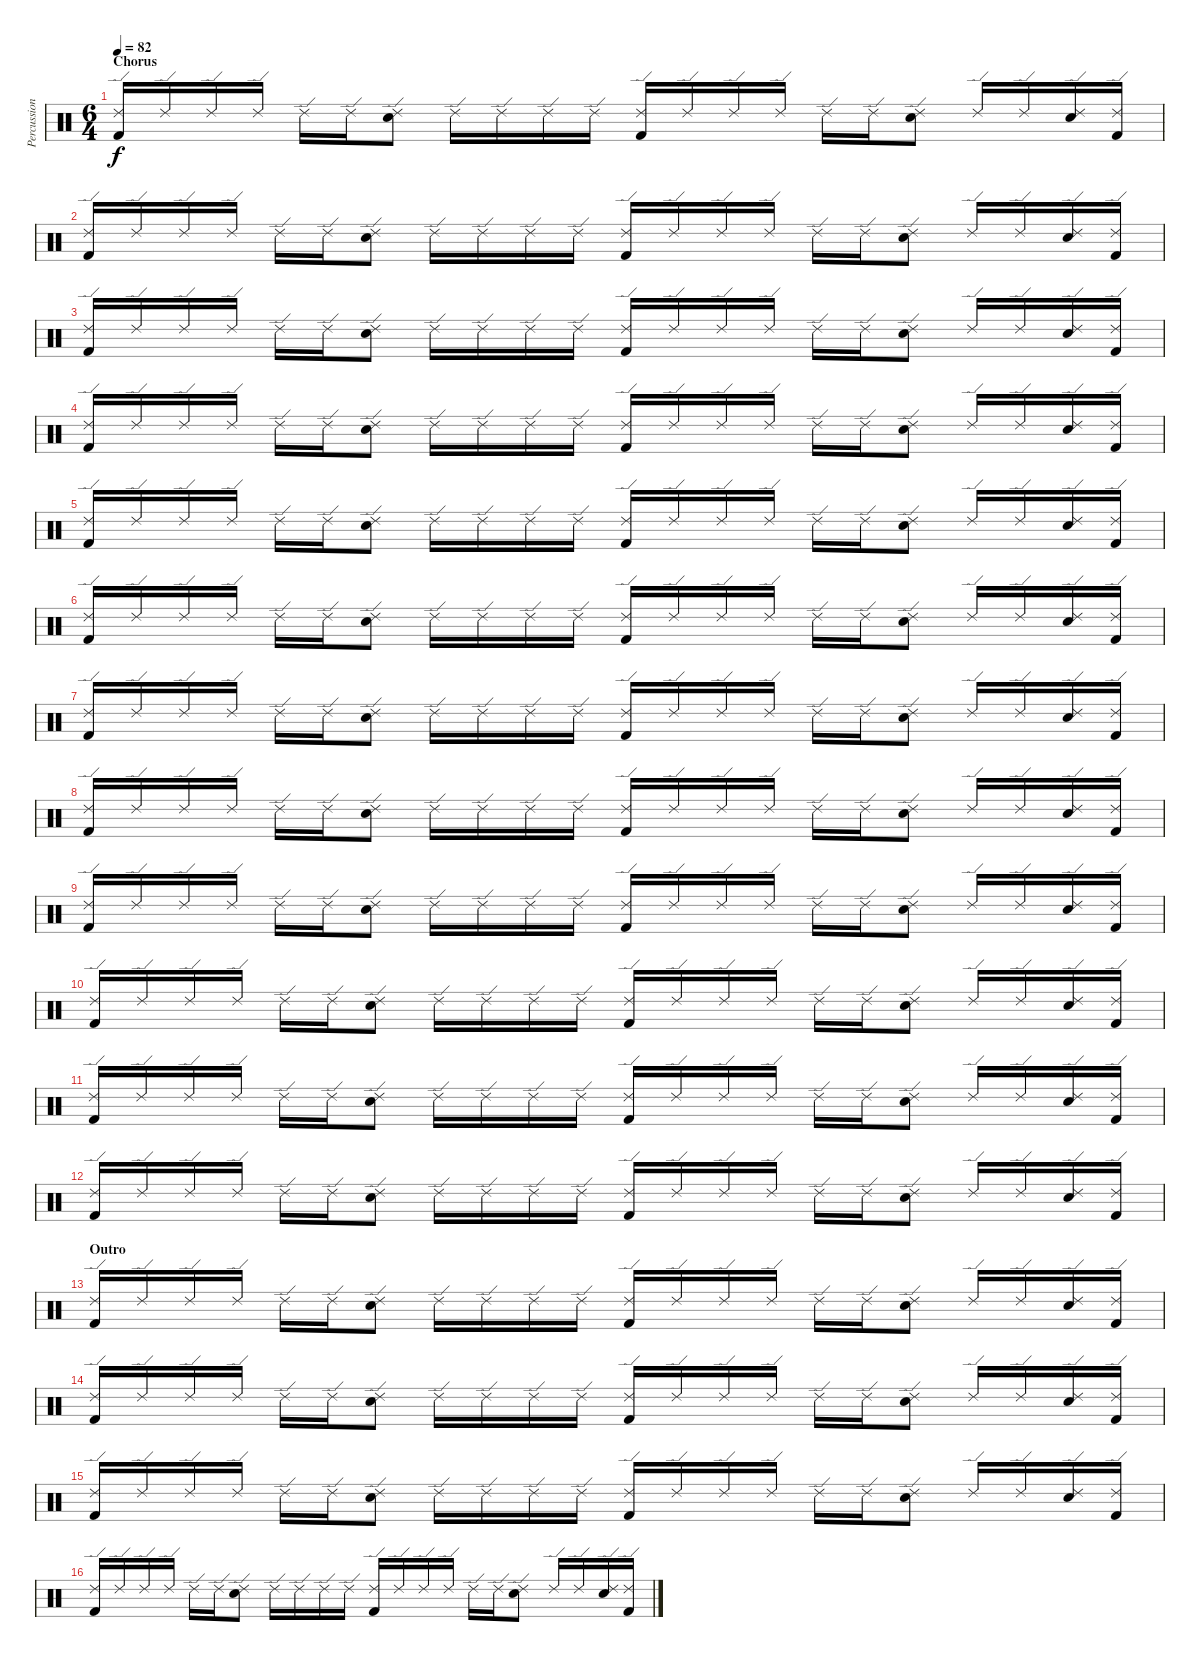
\track ("Percussion" "Percussion") {instrument percussion}
\staff {score}
\articulation defaults
\ts (6 4)
\section ("" "Chorus")
\tempo 82
\clef neutral
\ks c
("Ride (edge) 2" "Kick (hit) 2").16{dy f} "Ride (edge) 2".16 "Ride (edge) 2".16 "Ride (edge) 2".16 "Ride (edge) 2".16 "Ride (edge) 2".16 ("Ride (edge) 2" "Electric Snare (hit)").8 "Ride (edge) 2".16 "Ride (edge) 2".16 "Ride (edge) 2".16 "Ride (edge) 2".16 ("Ride (edge) 2" "Kick (hit) 2").16 "Ride (edge) 2".16 "Ride (edge) 2".16 "Ride (edge) 2".16 "Ride (edge) 2".16 "Ride (edge) 2".16 ("Ride (edge) 2" "Electric Snare (hit)").8 "Ride (edge) 2".16 "Ride (edge) 2".16 ("Ride (edge) 2" "Electric Snare (hit)").16 ("Ride (edge) 2" "Kick (hit) 2").16 |
("Ride (edge) 2" "Kick (hit) 2").16 "Ride (edge) 2".16 "Ride (edge) 2".16 "Ride (edge) 2".16 "Ride (edge) 2".16 "Ride (edge) 2".16 ("Ride (edge) 2" "Electric Snare (hit)").8 "Ride (edge) 2".16 "Ride (edge) 2".16 "Ride (edge) 2".16 "Ride (edge) 2".16 ("Ride (edge) 2" "Kick (hit) 2").16 "Ride (edge) 2".16 "Ride (edge) 2".16 "Ride (edge) 2".16 "Ride (edge) 2".16 "Ride (edge) 2".16 ("Ride (edge) 2" "Electric Snare (hit)").8 "Ride (edge) 2".16 "Ride (edge) 2".16 ("Ride (edge) 2" "Electric Snare (hit)").16 ("Ride (edge) 2" "Kick (hit) 2").16 |
("Ride (edge) 2" "Kick (hit) 2").16 "Ride (edge) 2".16 "Ride (edge) 2".16 "Ride (edge) 2".16 "Ride (edge) 2".16 "Ride (edge) 2".16 ("Ride (edge) 2" "Electric Snare (hit)").8 "Ride (edge) 2".16 "Ride (edge) 2".16 "Ride (edge) 2".16 "Ride (edge) 2".16 ("Ride (edge) 2" "Kick (hit) 2").16 "Ride (edge) 2".16 "Ride (edge) 2".16 "Ride (edge) 2".16 "Ride (edge) 2".16 "Ride (edge) 2".16 ("Ride (edge) 2" "Electric Snare (hit)").8 "Ride (edge) 2".16 "Ride (edge) 2".16 ("Ride (edge) 2" "Electric Snare (hit)").16 ("Ride (edge) 2" "Kick (hit) 2").16 |
("Ride (edge) 2" "Kick (hit) 2").16 "Ride (edge) 2".16 "Ride (edge) 2".16 "Ride (edge) 2".16 "Ride (edge) 2".16 "Ride (edge) 2".16 ("Ride (edge) 2" "Electric Snare (hit)").8 "Ride (edge) 2".16 "Ride (edge) 2".16 "Ride (edge) 2".16 "Ride (edge) 2".16 ("Ride (edge) 2" "Kick (hit) 2").16 "Ride (edge) 2".16 "Ride (edge) 2".16 "Ride (edge) 2".16 "Ride (edge) 2".16 "Ride (edge) 2".16 ("Ride (edge) 2" "Electric Snare (hit)").8 "Ride (edge) 2".16 "Ride (edge) 2".16 ("Ride (edge) 2" "Electric Snare (hit)").16 ("Ride (edge) 2" "Kick (hit) 2").16 |
("Ride (edge) 2" "Kick (hit) 2").16 "Ride (edge) 2".16 "Ride (edge) 2".16 "Ride (edge) 2".16 "Ride (edge) 2".16 "Ride (edge) 2".16 ("Ride (edge) 2" "Electric Snare (hit)").8 "Ride (edge) 2".16 "Ride (edge) 2".16 "Ride (edge) 2".16 "Ride (edge) 2".16 ("Ride (edge) 2" "Kick (hit) 2").16 "Ride (edge) 2".16 "Ride (edge) 2".16 "Ride (edge) 2".16 "Ride (edge) 2".16 "Ride (edge) 2".16 ("Ride (edge) 2" "Electric Snare (hit)").8 "Ride (edge) 2".16 "Ride (edge) 2".16 ("Ride (edge) 2" "Electric Snare (hit)").16 ("Ride (edge) 2" "Kick (hit) 2").16 |
("Ride (edge) 2" "Kick (hit) 2").16 "Ride (edge) 2".16 "Ride (edge) 2".16 "Ride (edge) 2".16 "Ride (edge) 2".16 "Ride (edge) 2".16 ("Ride (edge) 2" "Electric Snare (hit)").8 "Ride (edge) 2".16 "Ride (edge) 2".16 "Ride (edge) 2".16 "Ride (edge) 2".16 ("Ride (edge) 2" "Kick (hit) 2").16 "Ride (edge) 2".16 "Ride (edge) 2".16 "Ride (edge) 2".16 "Ride (edge) 2".16 "Ride (edge) 2".16 ("Ride (edge) 2" "Electric Snare (hit)").8 "Ride (edge) 2".16 "Ride (edge) 2".16 ("Ride (edge) 2" "Electric Snare (hit)").16 ("Ride (edge) 2" "Kick (hit) 2").16 |
("Ride (edge) 2" "Kick (hit) 2").16 "Ride (edge) 2".16 "Ride (edge) 2".16 "Ride (edge) 2".16 "Ride (edge) 2".16 "Ride (edge) 2".16 ("Ride (edge) 2" "Electric Snare (hit)").8 "Ride (edge) 2".16 "Ride (edge) 2".16 "Ride (edge) 2".16 "Ride (edge) 2".16 ("Ride (edge) 2" "Kick (hit) 2").16 "Ride (edge) 2".16 "Ride (edge) 2".16 "Ride (edge) 2".16 "Ride (edge) 2".16 "Ride (edge) 2".16 ("Ride (edge) 2" "Electric Snare (hit)").8 "Ride (edge) 2".16 "Ride (edge) 2".16 ("Ride (edge) 2" "Electric Snare (hit)").16 ("Ride (edge) 2" "Kick (hit) 2").16 |
("Ride (edge) 2" "Kick (hit) 2").16 "Ride (edge) 2".16 "Ride (edge) 2".16 "Ride (edge) 2".16 "Ride (edge) 2".16 "Ride (edge) 2".16 ("Ride (edge) 2" "Electric Snare (hit)").8 "Ride (edge) 2".16 "Ride (edge) 2".16 "Ride (edge) 2".16 "Ride (edge) 2".16 ("Ride (edge) 2" "Kick (hit) 2").16 "Ride (edge) 2".16 "Ride (edge) 2".16 "Ride (edge) 2".16 "Ride (edge) 2".16 "Ride (edge) 2".16 ("Ride (edge) 2" "Electric Snare (hit)").8 "Ride (edge) 2".16 "Ride (edge) 2".16 ("Ride (edge) 2" "Electric Snare (hit)").16 ("Ride (edge) 2" "Kick (hit) 2").16 |
("Ride (edge) 2" "Kick (hit) 2").16 "Ride (edge) 2".16 "Ride (edge) 2".16 "Ride (edge) 2".16 "Ride (edge) 2".16 "Ride (edge) 2".16 ("Ride (edge) 2" "Electric Snare (hit)").8 "Ride (edge) 2".16 "Ride (edge) 2".16 "Ride (edge) 2".16 "Ride (edge) 2".16 ("Ride (edge) 2" "Kick (hit) 2").16 "Ride (edge) 2".16 "Ride (edge) 2".16 "Ride (edge) 2".16 "Ride (edge) 2".16 "Ride (edge) 2".16 ("Ride (edge) 2" "Electric Snare (hit)").8 "Ride (edge) 2".16 "Ride (edge) 2".16 ("Ride (edge) 2" "Electric Snare (hit)").16 ("Ride (edge) 2" "Kick (hit) 2").16 |
("Ride (edge) 2" "Kick (hit) 2").16 "Ride (edge) 2".16 "Ride (edge) 2".16 "Ride (edge) 2".16 "Ride (edge) 2".16 "Ride (edge) 2".16 ("Ride (edge) 2" "Electric Snare (hit)").8 "Ride (edge) 2".16 "Ride (edge) 2".16 "Ride (edge) 2".16 "Ride (edge) 2".16 ("Ride (edge) 2" "Kick (hit) 2").16 "Ride (edge) 2".16 "Ride (edge) 2".16 "Ride (edge) 2".16 "Ride (edge) 2".16 "Ride (edge) 2".16 ("Ride (edge) 2" "Electric Snare (hit)").8 "Ride (edge) 2".16 "Ride (edge) 2".16 ("Ride (edge) 2" "Electric Snare (hit)").16 ("Ride (edge) 2" "Kick (hit) 2").16 |
("Ride (edge) 2" "Kick (hit) 2").16 "Ride (edge) 2".16 "Ride (edge) 2".16 "Ride (edge) 2".16 "Ride (edge) 2".16 "Ride (edge) 2".16 ("Ride (edge) 2" "Electric Snare (hit)").8 "Ride (edge) 2".16 "Ride (edge) 2".16 "Ride (edge) 2".16 "Ride (edge) 2".16 ("Ride (edge) 2" "Kick (hit) 2").16 "Ride (edge) 2".16 "Ride (edge) 2".16 "Ride (edge) 2".16 "Ride (edge) 2".16 "Ride (edge) 2".16 ("Ride (edge) 2" "Electric Snare (hit)").8 "Ride (edge) 2".16 "Ride (edge) 2".16 ("Ride (edge) 2" "Electric Snare (hit)").16 ("Ride (edge) 2" "Kick (hit) 2").16 |
("Ride (edge) 2" "Kick (hit) 2").16 "Ride (edge) 2".16 "Ride (edge) 2".16 "Ride (edge) 2".16 "Ride (edge) 2".16 "Ride (edge) 2".16 ("Ride (edge) 2" "Electric Snare (hit)").8 "Ride (edge) 2".16 "Ride (edge) 2".16 "Ride (edge) 2".16 "Ride (edge) 2".16 ("Ride (edge) 2" "Kick (hit) 2").16 "Ride (edge) 2".16 "Ride (edge) 2".16 "Ride (edge) 2".16 "Ride (edge) 2".16 "Ride (edge) 2".16 ("Ride (edge) 2" "Electric Snare (hit)").8 "Ride (edge) 2".16 "Ride (edge) 2".16 ("Ride (edge) 2" "Electric Snare (hit)").16 ("Ride (edge) 2" "Kick (hit) 2").16 |
\section ("" "Outro")
("Ride (edge) 2" "Kick (hit) 2").16 "Ride (edge) 2".16 "Ride (edge) 2".16 "Ride (edge) 2".16 "Ride (edge) 2".16 "Ride (edge) 2".16 ("Ride (edge) 2" "Electric Snare (hit)").8 "Ride (edge) 2".16 "Ride (edge) 2".16 "Ride (edge) 2".16 "Ride (edge) 2".16 ("Ride (edge) 2" "Kick (hit) 2").16 "Ride (edge) 2".16 "Ride (edge) 2".16 "Ride (edge) 2".16 "Ride (edge) 2".16 "Ride (edge) 2".16 ("Ride (edge) 2" "Electric Snare (hit)").8 "Ride (edge) 2".16 "Ride (edge) 2".16 ("Ride (edge) 2" "Electric Snare (hit)").16 ("Ride (edge) 2" "Kick (hit) 2").16 |
("Ride (edge) 2" "Kick (hit) 2").16 "Ride (edge) 2".16 "Ride (edge) 2".16 "Ride (edge) 2".16 "Ride (edge) 2".16 "Ride (edge) 2".16 ("Ride (edge) 2" "Electric Snare (hit)").8 "Ride (edge) 2".16 "Ride (edge) 2".16 "Ride (edge) 2".16 "Ride (edge) 2".16 ("Ride (edge) 2" "Kick (hit) 2").16 "Ride (edge) 2".16 "Ride (edge) 2".16 "Ride (edge) 2".16 "Ride (edge) 2".16 "Ride (edge) 2".16 ("Ride (edge) 2" "Electric Snare (hit)").8 "Ride (edge) 2".16 "Ride (edge) 2".16 ("Ride (edge) 2" "Electric Snare (hit)").16 ("Ride (edge) 2" "Kick (hit) 2").16 |
("Ride (edge) 2" "Kick (hit) 2").16 "Ride (edge) 2".16 "Ride (edge) 2".16 "Ride (edge) 2".16 "Ride (edge) 2".16 "Ride (edge) 2".16 ("Ride (edge) 2" "Electric Snare (hit)").8 "Ride (edge) 2".16 "Ride (edge) 2".16 "Ride (edge) 2".16 "Ride (edge) 2".16 ("Ride (edge) 2" "Kick (hit) 2").16 "Ride (edge) 2".16 "Ride (edge) 2".16 "Ride (edge) 2".16 "Ride (edge) 2".16 "Ride (edge) 2".16 ("Ride (edge) 2" "Electric Snare (hit)").8 "Ride (edge) 2".16 "Ride (edge) 2".16 ("Ride (edge) 2" "Electric Snare (hit)").16 ("Ride (edge) 2" "Kick (hit) 2").16 |
("Ride (edge) 2" "Kick (hit) 2").16 "Ride (edge) 2".16 "Ride (edge) 2".16 "Ride (edge) 2".16 "Ride (edge) 2".16 "Ride (edge) 2".16 ("Ride (edge) 2" "Electric Snare (hit)").8 "Ride (edge) 2".16 "Ride (edge) 2".16 "Ride (edge) 2".16 "Ride (edge) 2".16 ("Ride (edge) 2" "Kick (hit) 2").16 "Ride (edge) 2".16 "Ride (edge) 2".16 "Ride (edge) 2".16 "Ride (edge) 2".16 "Ride (edge) 2".16 ("Ride (edge) 2" "Electric Snare (hit)").8 "Ride (edge) 2".16 "Ride (edge) 2".16 ("Ride (edge) 2" "Electric Snare (hit)").16 ("Ride (edge) 2" "Kick (hit) 2").16
